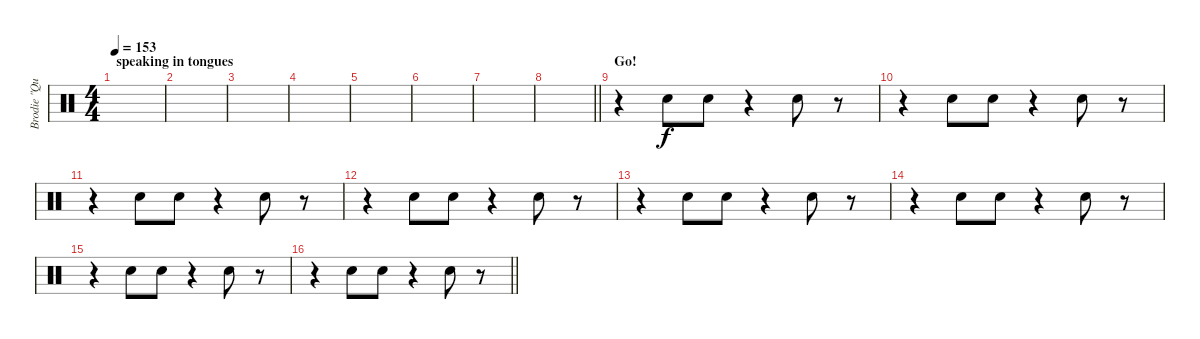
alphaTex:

\track ("Brodie \"Queen Be\" Dalle" "Brodie \"Qu") {instrument percussion}
\staff {score}
\articulation defaults
\ts (4 4)
\section ("" "speaking in tongues")
\tempo 153
\clef neutral
\ks c
|
|
|
|
|
|
|
\barLineRight lightlight
|
\section ("" "Go!")
r.4 "Hand Clap (hit)".8 "Hand Clap (hit)".8 r.4 "Hand Clap (hit)".8 r.8 |
r.4 "Hand Clap (hit)".8 "Hand Clap (hit)".8 r.4 "Hand Clap (hit)".8 r.8 |
r.4 "Hand Clap (hit)".8 "Hand Clap (hit)".8 r.4 "Hand Clap (hit)".8 r.8 |
r.4 "Hand Clap (hit)".8 "Hand Clap (hit)".8 r.4 "Hand Clap (hit)".8 r.8 |
r.4 "Hand Clap (hit)".8 "Hand Clap (hit)".8 r.4 "Hand Clap (hit)".8 r.8 |
r.4 "Hand Clap (hit)".8 "Hand Clap (hit)".8 r.4 "Hand Clap (hit)".8 r.8 |
r.4 "Hand Clap (hit)".8 "Hand Clap (hit)".8 r.4 "Hand Clap (hit)".8 r.8 |
\barLineRight lightlight
r.4 "Hand Clap (hit)".8 "Hand Clap (hit)".8 r.4 "Hand Clap (hit)".8 r.8
